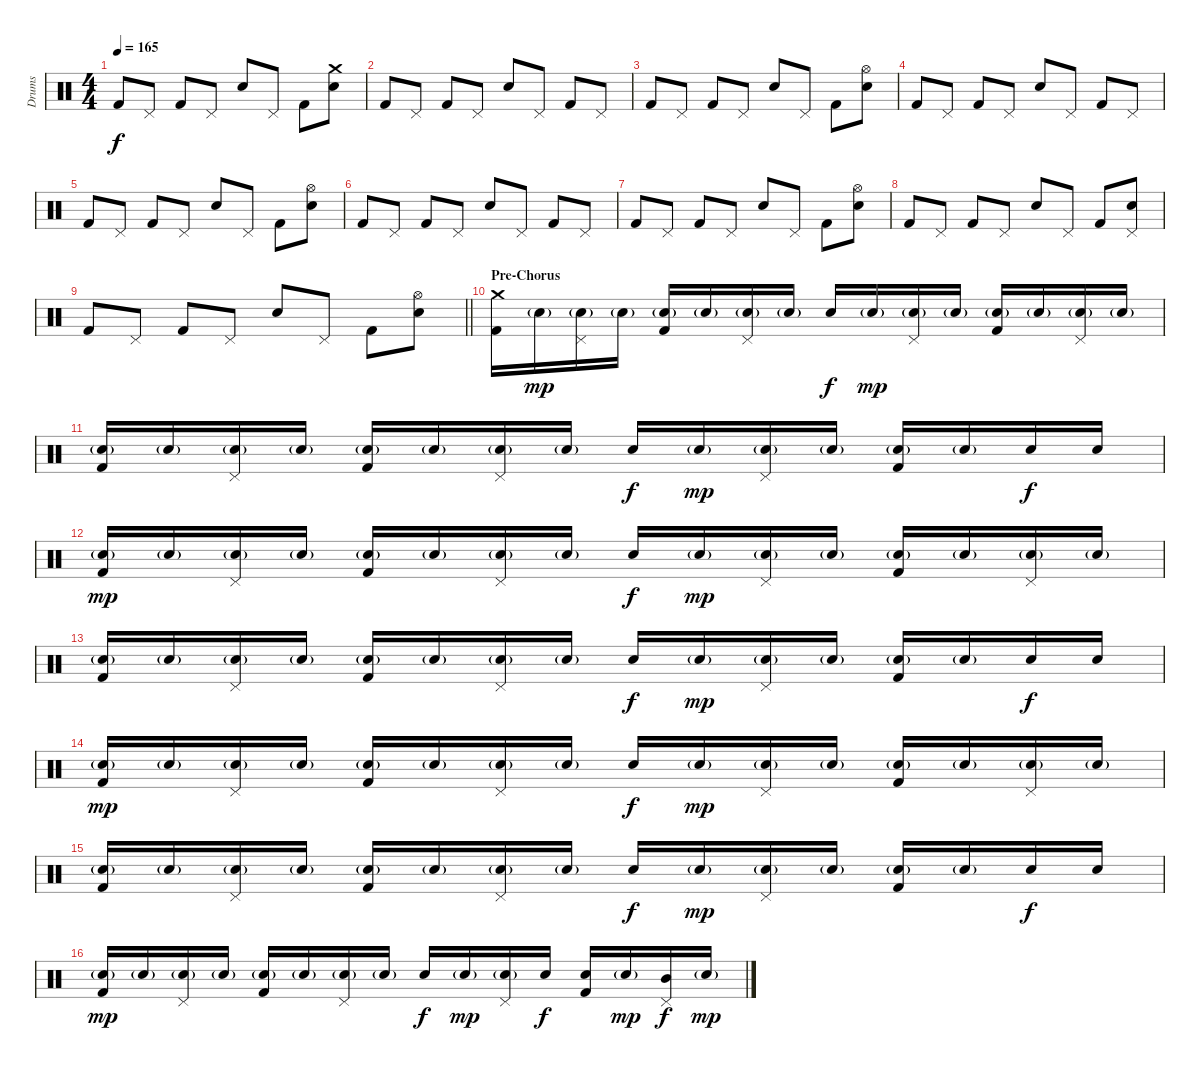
\track ("Drums" "Drums") {instrument percussion}
\staff {score}
\articulation defaults
\ts (4 4)
\tempo 165
\clef neutral
\ks c "Kick (hit) 2".8{dy f} "Pedal Hi-Hat (hit)".8 "Kick (hit) 2".8 "Pedal Hi-Hat (hit)".8 "Electric Snare (hit)".8 "Pedal Hi-Hat (hit)".8 "Kick (hit) 2".8
("Crash medium (hit)" "Electric Snare (hit)").8 |
"Kick (hit) 2".8 "Pedal Hi-Hat (hit)".8 "Kick (hit) 2".8 "Pedal Hi-Hat (hit)".8 "Electric Snare (hit)".8 "Pedal Hi-Hat (hit)".8 "Kick (hit) 2".8 "Pedal Hi-Hat (hit)".8 |
"Kick (hit) 2".8 "Pedal Hi-Hat (hit)".8 "Kick (hit) 2".8 "Pedal Hi-Hat (hit)".8 "Electric Snare (hit)".8 "Pedal Hi-Hat (hit)".8 "Kick (hit) 2".8 ("Hi-Hat (open)" "Electric Snare (hit)").8 |
"Kick (hit) 2".8 "Pedal Hi-Hat (hit)".8 "Kick (hit) 2".8 "Pedal Hi-Hat (hit)".8 "Electric Snare (hit)".8 "Pedal Hi-Hat (hit)".8 "Kick (hit) 2".8 "Pedal Hi-Hat (hit)".8 |
"Kick (hit) 2".8 "Pedal Hi-Hat (hit)".8 "Kick (hit) 2".8 "Pedal Hi-Hat (hit)".8 "Electric Snare (hit)".8 "Pedal Hi-Hat (hit)".8 "Kick (hit) 2".8 ("Hi-Hat (open)" "Electric Snare (hit)").8 |
"Kick (hit) 2".8 "Pedal Hi-Hat (hit)".8 "Kick (hit) 2".8 "Pedal Hi-Hat (hit)".8 "Electric Snare (hit)".8 "Pedal Hi-Hat (hit)".8 "Kick (hit) 2".8 "Pedal Hi-Hat (hit)".8 |
"Kick (hit) 2".8 "Pedal Hi-Hat (hit)".8 "Kick (hit) 2".8 "Pedal Hi-Hat (hit)".8 "Electric Snare (hit)".8 "Pedal Hi-Hat (hit)".8 "Kick (hit) 2".8 ("Hi-Hat (open)" "Electric Snare (hit)").8 |
"Kick (hit) 2".8 "Pedal Hi-Hat (hit)".8 "Kick (hit) 2".8 "Pedal Hi-Hat (hit)".8 "Electric Snare (hit)".8 "Pedal Hi-Hat (hit)".8 "Kick (hit) 2".8 ("Pedal Hi-Hat (hit)" "Electric Snare (hit)").8 |
\barLineRight lightlight "Kick (hit) 2".8 "Pedal Hi-Hat (hit)".8 "Kick (hit) 2".8 "Pedal Hi-Hat (hit)".8 "Electric Snare (hit)".8 "Pedal Hi-Hat (hit)".8 "Kick (hit) 2".8
("Hi-Hat (open)" "Electric Snare (hit)").8 |
\section ("" "Pre-Chorus")
("Crash medium (hit)" "Kick (hit) 2").16 "Electric Snare (hit)"{g}.16{dy mp} ("Pedal Hi-Hat (hit)" "Electric Snare (hit)"{g}).16 "Electric Snare (hit)"{g}.16 ("Electric Snare (hit)"{g} "Kick (hit) 2").16 "Electric Snare (hit)"{g}.16 ("Pedal Hi-Hat (hit)" "Electric Snare (hit)"{g}).16 "Electric Snare (hit)"{g}.16 "Electric Snare (hit)".16{dy f} "Electric Snare (hit)"{g}.16{dy mp} ("Pedal Hi-Hat (hit)" "Electric Snare (hit)"{g}).16 "Electric Snare (hit)"{g}.16 ("Electric Snare (hit)"{g} "Kick (hit) 2").16 "Electric Snare (hit)"{g}.16 ("Pedal Hi-Hat (hit)" "Electric Snare (hit)"{g}).16 "Electric Snare (hit)"{g}.16 |
("Electric Snare (hit)"{g} "Kick (hit) 2").16 "Electric Snare (hit)"{g}.16 ("Pedal Hi-Hat (hit)" "Electric Snare (hit)"{g}).16 "Electric Snare (hit)"{g}.16 ("Electric Snare (hit)"{g} "Kick (hit) 2").16 "Electric Snare (hit)"{g}.16 ("Pedal Hi-Hat (hit)" "Electric Snare (hit)"{g}).16 "Electric Snare (hit)"{g}.16 "Electric Snare (hit)".16{dy f} "Electric Snare (hit)"{g}.16{dy mp} ("Pedal Hi-Hat (hit)" "Electric Snare (hit)"{g}).16 "Electric Snare (hit)"{g}.16 ("Electric Snare (hit)"{g} "Kick (hit) 2").16 "Electric Snare (hit)"{g}.16 "Electric Snare (hit)".16{dy f} "Electric Snare (hit)".16 |
("Electric Snare (hit)"{g} "Kick (hit) 2").16{dy mp} "Electric Snare (hit)"{g}.16 ("Pedal Hi-Hat (hit)" "Electric Snare (hit)"{g}).16 "Electric Snare (hit)"{g}.16 ("Electric Snare (hit)"{g} "Kick (hit) 2").16 "Electric Snare (hit)"{g}.16 ("Pedal Hi-Hat (hit)" "Electric Snare (hit)"{g}).16 "Electric Snare (hit)"{g}.16 "Electric Snare (hit)".16{dy f} "Electric Snare (hit)"{g}.16{dy mp} ("Pedal Hi-Hat (hit)" "Electric Snare (hit)"{g}).16 "Electric Snare (hit)"{g}.16 ("Electric Snare (hit)"{g} "Kick (hit) 2").16 "Electric Snare (hit)"{g}.16 ("Pedal Hi-Hat (hit)" "Electric Snare (hit)"{g}).16 "Electric Snare (hit)"{g}.16 |
("Electric Snare (hit)"{g} "Kick (hit) 2").16 "Electric Snare (hit)"{g}.16 ("Pedal Hi-Hat (hit)" "Electric Snare (hit)"{g}).16 "Electric Snare (hit)"{g}.16 ("Electric Snare (hit)"{g} "Kick (hit) 2").16 "Electric Snare (hit)"{g}.16 ("Pedal Hi-Hat (hit)" "Electric Snare (hit)"{g}).16 "Electric Snare (hit)"{g}.16 "Electric Snare (hit)".16{dy f} "Electric Snare (hit)"{g}.16{dy mp} ("Pedal Hi-Hat (hit)" "Electric Snare (hit)"{g}).16 "Electric Snare (hit)"{g}.16 ("Electric Snare (hit)"{g} "Kick (hit) 2").16 "Electric Snare (hit)"{g}.16 "Electric Snare (hit)".16{dy f} "Electric Snare (hit)".16 |
("Electric Snare (hit)"{g} "Kick (hit) 2").16{dy mp} "Electric Snare (hit)"{g}.16 ("Pedal Hi-Hat (hit)" "Electric Snare (hit)"{g}).16 "Electric Snare (hit)"{g}.16 ("Electric Snare (hit)"{g} "Kick (hit) 2").16 "Electric Snare (hit)"{g}.16 ("Pedal Hi-Hat (hit)" "Electric Snare (hit)"{g}).16 "Electric Snare (hit)"{g}.16 "Electric Snare (hit)".16{dy f} "Electric Snare (hit)"{g}.16{dy mp} ("Pedal Hi-Hat (hit)" "Electric Snare (hit)"{g}).16 "Electric Snare (hit)"{g}.16 ("Electric Snare (hit)"{g} "Kick (hit) 2").16 "Electric Snare (hit)"{g}.16 ("Pedal Hi-Hat (hit)" "Electric Snare (hit)"{g}).16 "Electric Snare (hit)"{g}.16 |
("Electric Snare (hit)"{g} "Kick (hit) 2").16 "Electric Snare (hit)"{g}.16 ("Pedal Hi-Hat (hit)" "Electric Snare (hit)"{g}).16 "Electric Snare (hit)"{g}.16 ("Electric Snare (hit)"{g} "Kick (hit) 2").16 "Electric Snare (hit)"{g}.16 ("Pedal Hi-Hat (hit)" "Electric Snare (hit)"{g}).16 "Electric Snare (hit)"{g}.16 "Electric Snare (hit)".16{dy f} "Electric Snare (hit)"{g}.16{dy mp} ("Pedal Hi-Hat (hit)" "Electric Snare (hit)"{g}).16 "Electric Snare (hit)"{g}.16 ("Electric Snare (hit)"{g} "Kick (hit) 2").16 "Electric Snare (hit)"{g}.16 "Electric Snare (hit)".16{dy f} "Electric Snare (hit)".16 |
("Electric Snare (hit)"{g} "Kick (hit) 2").16{dy mp} "Electric Snare (hit)"{g}.16 ("Pedal Hi-Hat (hit)" "Electric Snare (hit)"{g}).16 "Electric Snare (hit)"{g}.16 ("Electric Snare (hit)"{g} "Kick (hit) 2").16 "Electric Snare (hit)"{g}.16 ("Pedal Hi-Hat (hit)" "Electric Snare (hit)"{g}).16 "Electric Snare (hit)"{g}.16 "Electric Snare (hit)".16{dy f} "Electric Snare (hit)"{g}.16{dy mp} ("Pedal Hi-Hat (hit)" "Electric Snare (hit)"{g}).16 "Electric Snare (hit)".16{dy f} ("Electric Snare (hit)" "Kick (hit) 2").16 "Electric Snare (hit)"{g}.16{dy mp} ("Pedal Hi-Hat (hit)" "Mid Tom (hit)").16{dy f} "Electric Snare (hit)"{g}.16{dy mp}
